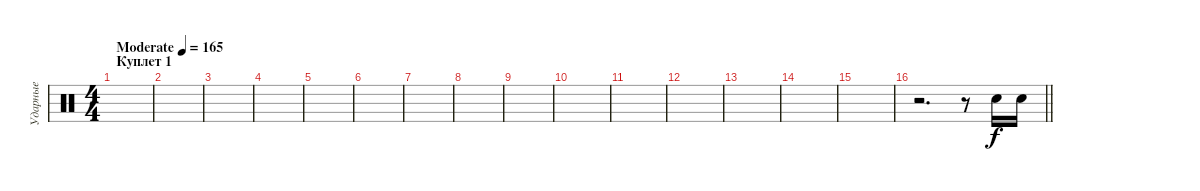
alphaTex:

\track ("Ударные" "Ударные") {instrument percussion}
\staff {score}
\articulation defaults
\ts (4 4)
\section ("" "Куплет 1")
\tempo (165 "Moderate")
\clef neutral
\ks c
|
|
|
|
|
|
|
|
|
|
|
|
|
|
|
\barLineRight lightlight
r.2{d} r.8 "Electric Snare (hit)".16 "Electric Snare (hit)".16
